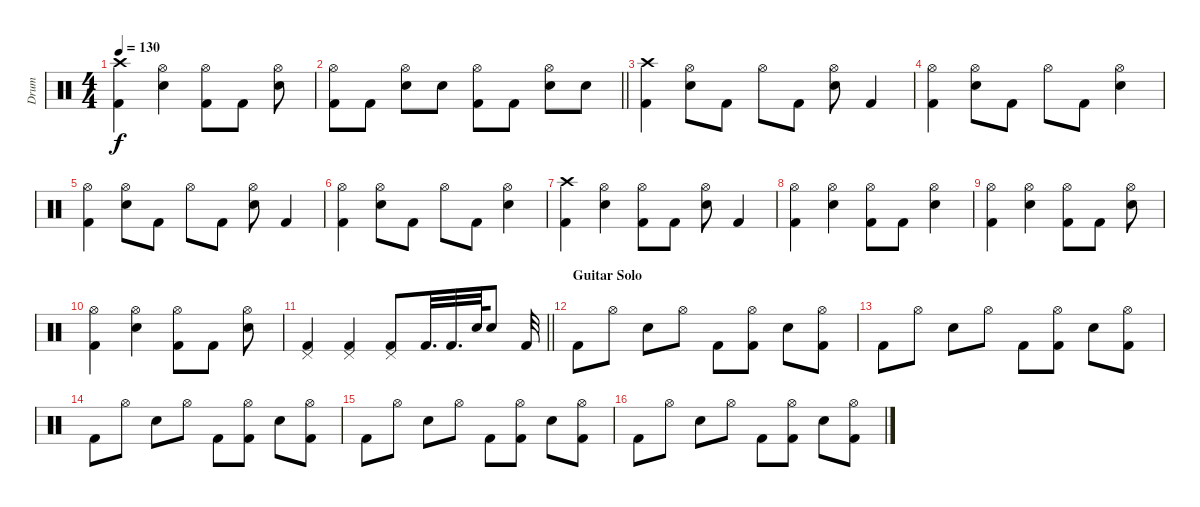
\track ("Drum" "Drum") {instrument percussion}
\staff {score}
\articulation defaults
\ts (4 4)
\tempo 130
\clef neutral
\ks c
("Crash high (hit)" "Kick (hit) 2").4{dy f} ("Hi-Hat (open)" "Electric Snare (hit)").4 ("Hi-Hat (open)" "Kick (hit) 2").8 "Kick (hit) 2".8 ("Hi-Hat (open)" "Electric Snare (hit)").8 |
\barLineRight lightlight
("Hi-Hat (open)" "Kick (hit) 2").8 "Kick (hit) 2".8 ("Hi-Hat (open)" "Electric Snare (hit)").8 "Electric Snare (hit)".8 ("Hi-Hat (open)" "Kick (hit) 2").8 "Kick (hit) 2".8 ("Hi-Hat (open)" "Electric Snare (hit)").8 "Electric Snare (hit)".8 |
("Crash high (hit)" "Kick (hit) 2").4 ("Hi-Hat (open)" "Electric Snare (hit)").8 "Kick (hit) 2".8 "Hi-Hat (open)".8 "Kick (hit) 2".8 ("Hi-Hat (open)" "Electric Snare (hit)").8 "Kick (hit) 2".4 |
("Hi-Hat (open)" "Kick (hit) 2").4 ("Hi-Hat (open)" "Electric Snare (hit)").8 "Kick (hit) 2".8 "Hi-Hat (open)".8 "Kick (hit) 2".8 ("Hi-Hat (open)" "Electric Snare (hit)").4 |
("Hi-Hat (open)" "Kick (hit) 2").4 ("Hi-Hat (open)" "Electric Snare (hit)").8 "Kick (hit) 2".8 "Hi-Hat (open)".8 "Kick (hit) 2".8 ("Hi-Hat (open)" "Electric Snare (hit)").8 "Kick (hit) 2".4 |
("Hi-Hat (open)" "Kick (hit) 2").4 ("Hi-Hat (open)" "Electric Snare (hit)").8 "Kick (hit) 2".8 "Hi-Hat (open)".8 "Kick (hit) 2".8 ("Hi-Hat (open)" "Electric Snare (hit)").4 |
("Crash high (hit)" "Kick (hit) 2").4 ("Hi-Hat (open)" "Electric Snare (hit)").4 ("Hi-Hat (open)" "Kick (hit) 2").8 "Kick (hit) 2".8 ("Hi-Hat (open)" "Electric Snare (hit)").8 "Kick (hit) 2".4 |
("Hi-Hat (open)" "Kick (hit) 2").4 ("Hi-Hat (open)" "Electric Snare (hit)").4 ("Hi-Hat (open)" "Kick (hit) 2").8 "Kick (hit) 2".8 ("Hi-Hat (open)" "Electric Snare (hit)").4 |
("Hi-Hat (open)" "Kick (hit) 2").4 ("Hi-Hat (open)" "Electric Snare (hit)").4 ("Hi-Hat (open)" "Kick (hit) 2").8 "Kick (hit) 2".8 ("Hi-Hat (open)" "Electric Snare (hit)").8 |
("Hi-Hat (open)" "Kick (hit) 2").4 ("Hi-Hat (open)" "Electric Snare (hit)").4 ("Hi-Hat (open)" "Kick (hit) 2").8 "Kick (hit) 2".8 ("Hi-Hat (open)" "Electric Snare (hit)").8 |
\barLineRight lightlight
("Pedal Hi-Hat (hit)" "Kick (hit) 2").4 ("Pedal Hi-Hat (hit)" "Kick (hit) 2").4 ("Pedal Hi-Hat (hit)" "Kick (hit) 2").8 "Kick (hit) 2".32{d} "Kick (hit) 2".32{d} "Electric Snare (hit)".64 "Electric Snare (hit)".8 "Kick (hit) 2".32 |
\section ("" "Guitar Solo")
"Kick (hit) 2".8 "Hi-Hat (open)".8 "Electric Snare (hit)".8 "Hi-Hat (open)".8 "Kick (hit) 2".8 ("Hi-Hat (open)" "Kick (hit) 2").8 "Electric Snare (hit)".8 ("Hi-Hat (open)" "Kick (hit) 2").8 |
"Kick (hit) 2".8 "Hi-Hat (open)".8 "Electric Snare (hit)".8 "Hi-Hat (open)".8 "Kick (hit) 2".8 ("Hi-Hat (open)" "Kick (hit) 2").8 "Electric Snare (hit)".8 ("Hi-Hat (open)" "Kick (hit) 2").8 |
"Kick (hit) 2".8 "Hi-Hat (open)".8 "Electric Snare (hit)".8 "Hi-Hat (open)".8 "Kick (hit) 2".8 ("Hi-Hat (open)" "Kick (hit) 2").8 "Electric Snare (hit)".8 ("Hi-Hat (open)" "Kick (hit) 2").8 |
"Kick (hit) 2".8 "Hi-Hat (open)".8 "Electric Snare (hit)".8 "Hi-Hat (open)".8 "Kick (hit) 2".8 ("Hi-Hat (open)" "Kick (hit) 2").8 "Electric Snare (hit)".8 ("Hi-Hat (open)" "Kick (hit) 2").8 |
"Kick (hit) 2".8 "Hi-Hat (open)".8 "Electric Snare (hit)".8 "Hi-Hat (open)".8 "Kick (hit) 2".8 ("Hi-Hat (open)" "Kick (hit) 2").8 "Electric Snare (hit)".8 ("Hi-Hat (open)" "Kick (hit) 2").8
